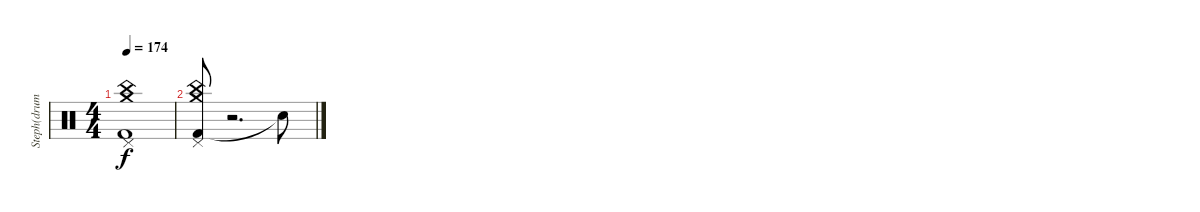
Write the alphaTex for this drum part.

\track ("Steph(drums)" "Steph(drum") {instrument percussion}
\staff {score}
\articulation defaults
\ts (4 4)
\tempo 174
\clef neutral
\ks c
("Pedal Hi-Hat (hit)" "Crash medium (hit)" "China (hit)" "Kick (hit) 2").1{dy f} |
("Kick (hit) 2" "Pedal Hi-Hat (hit)" "Crash medium (hit)" "China (hit)").8 r.2{d} "Snare (hit)"{t}.8
